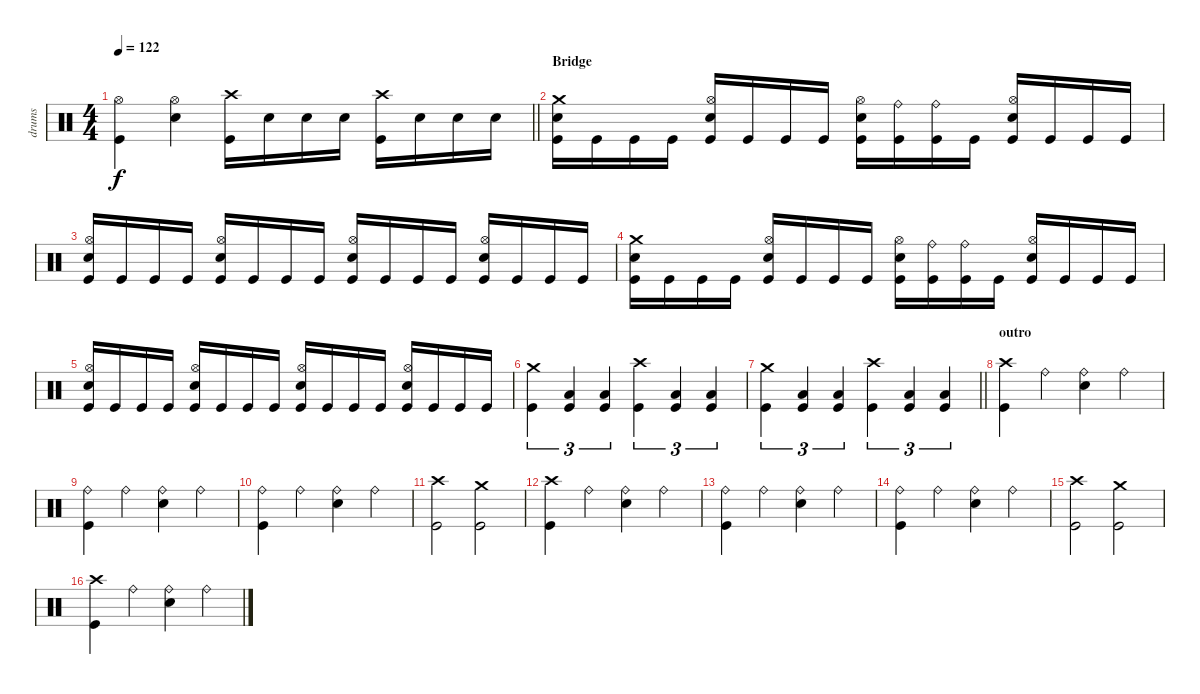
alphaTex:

\track ("drums" "drums") {instrument percussion}
\staff {score}
\articulation defaults
\ts (4 4)
\tempo 122
\clef neutral
\barLineRight lightlight
\ks c
("Kick (hit)" "Hi-Hat (open)").4{dy f} ("Snare (hit) 2" "Hi-Hat (open)").4 ("Kick (hit)" "Crash high (hit)").16 "Snare (hit) 2".16 "Snare (hit) 2".16 "Snare (hit) 2".16 ("Kick (hit)" "Crash high (hit)").16 "Snare (hit) 2".16 "Snare (hit) 2".16 "Snare (hit) 2".16 |
\section ("" "Bridge")
("Snare (hit) 2" "Kick (hit)" "Crash medium (hit)").16 "Kick (hit)".16 "Kick (hit)".16 "Kick (hit)".16 ("Snare (hit) 2" "Kick (hit)" "Hi-Hat (open)").16 "Kick (hit)".16 "Kick (hit)".16 "Kick (hit)".16 ("Snare (hit) 2" "Kick (hit)" "Hi-Hat (open)").16 ("Kick (hit)" "Ride (bell)").16 ("Kick (hit)" "Ride (bell)").16 "Kick (hit)".16 ("Snare (hit) 2" "Kick (hit)" "Hi-Hat (open)").16 "Kick (hit)".16 "Kick (hit)".16 "Kick (hit)".16 |
("Snare (hit) 2" "Kick (hit)" "Hi-Hat (open)").16 "Kick (hit)".16 "Kick (hit)".16 "Kick (hit)".16 ("Snare (hit) 2" "Kick (hit)" "Hi-Hat (open)").16 "Kick (hit)".16 "Kick (hit)".16 "Kick (hit)".16 ("Snare (hit) 2" "Kick (hit)" "Hi-Hat (open)").16 "Kick (hit)".16 "Kick (hit)".16 "Kick (hit)".16 ("Snare (hit) 2" "Kick (hit)" "Hi-Hat (open)").16 "Kick (hit)".16 "Kick (hit)".16 "Kick (hit)".16 |
("Snare (hit) 2" "Kick (hit)" "Crash medium (hit)").16 "Kick (hit)".16 "Kick (hit)".16 "Kick (hit)".16 ("Snare (hit) 2" "Kick (hit)" "Hi-Hat (open)").16 "Kick (hit)".16 "Kick (hit)".16 "Kick (hit)".16 ("Snare (hit) 2" "Kick (hit)" "Hi-Hat (open)").16 ("Kick (hit)" "Ride (bell)").16 ("Kick (hit)" "Ride (bell)").16 "Kick (hit)".16 ("Snare (hit) 2" "Kick (hit)" "Hi-Hat (open)").16 "Kick (hit)".16 "Kick (hit)".16 "Kick (hit)".16 |
("Snare (hit) 2" "Kick (hit)" "Hi-Hat (open)").16 "Kick (hit)".16 "Kick (hit)".16 "Kick (hit)".16 ("Snare (hit) 2" "Kick (hit)" "Hi-Hat (open)").16 "Kick (hit)".16 "Kick (hit)".16 "Kick (hit)".16 ("Snare (hit) 2" "Kick (hit)" "Hi-Hat (open)").16 "Kick (hit)".16 "Kick (hit)".16 "Kick (hit)".16 ("Snare (hit) 2" "Kick (hit)" "Hi-Hat (open)").16 "Kick (hit)".16 "Kick (hit)".16 "Kick (hit)".16 |
("Kick (hit)" "Crash medium (hit)").4{tu (3 2)} ("Kick (hit)" "Low Floor Tom (hit)").4{tu (3 2)} ("Kick (hit)" "Low Floor Tom (hit)").4{tu (3 2)} ("Kick (hit)" "Crash high (hit)").4{tu (3 2)} ("Kick (hit)" "Low Floor Tom (hit)").4{tu (3 2)} ("Kick (hit)" "Low Floor Tom (hit)").4{tu (3 2)} |
\barLineRight lightlight
("Kick (hit)" "Crash medium (hit)").4{tu (3 2)} ("Kick (hit)" "Low Floor Tom (hit)").4{tu (3 2)} ("Kick (hit)" "Low Floor Tom (hit)").4{tu (3 2)} ("Kick (hit)" "Crash high (hit)").4{tu (3 2)} ("Kick (hit)" "Low Floor Tom (hit)").4{tu (3 2)} ("Kick (hit)" "Low Floor Tom (hit)").4{tu (3 2)} |
\section ("" "outro")
("Kick (hit)" "Crash high (hit)").4 "Ride (bell)".4 ("Snare (hit) 2" "Ride (bell)").4 "Ride (bell)".4 |
("Kick (hit)" "Ride (bell)").4 "Ride (bell)".4 ("Snare (hit) 2" "Ride (bell)").4 "Ride (bell)".4 |
("Kick (hit)" "Ride (bell)").4 "Ride (bell)".4 ("Snare (hit) 2" "Ride (bell)").4 "Ride (bell)".4 |
("Kick (hit)" "Crash high (hit)").2 ("Kick (hit)" "Crash medium (hit)").2 |
("Kick (hit)" "Crash high (hit)").4 "Ride (bell)".4 ("Snare (hit) 2" "Ride (bell)").4 "Ride (bell)".4 |
("Kick (hit)" "Ride (bell)").4 "Ride (bell)".4 ("Snare (hit) 2" "Ride (bell)").4 "Ride (bell)".4 |
("Kick (hit)" "Ride (bell)").4 "Ride (bell)".4 ("Snare (hit) 2" "Ride (bell)").4 "Ride (bell)".4 |
("Kick (hit)" "Crash high (hit)").2 ("Kick (hit)" "Crash medium (hit)").2 |
("Kick (hit)" "Crash high (hit)").4 "Ride (bell)".4 ("Snare (hit) 2" "Ride (bell)").4 "Ride (bell)".4
